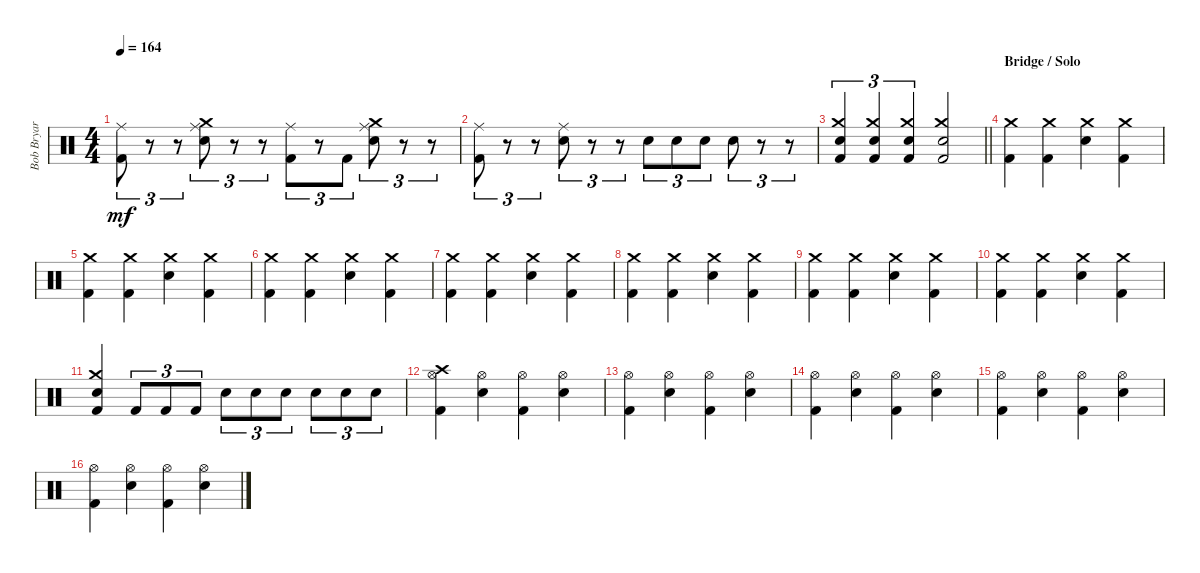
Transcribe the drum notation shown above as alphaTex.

\track ("Bob Bryar" "Bob Bryar") {instrument percussion}
\staff {score}
\articulation defaults
\ts (4 4)
\tempo 164
\clef neutral
\ks c
("Ride (middle)" "Kick (hit) 2").8{tu (3 2) dy mf} r.8{tu (3 2)} r.8{tu (3 2)} ("Crash medium (hit)" "Ride (middle)" "Electric Snare (hit)").8{tu (3 2)} r.8{tu (3 2)} r.8{tu (3 2)} ("Ride (middle)" "Kick (hit) 2").8{tu (3 2)} r.8{tu (3 2)} "Kick (hit) 2".8{tu (3 2)} ("Crash medium (hit)" "Ride (middle)" "Electric Snare (hit)").8{tu (3 2)} r.8{tu (3 2)} r.8{tu (3 2)} |
("Ride (middle)" "Kick (hit) 2").8{tu (3 2)} r.8{tu (3 2)} r.8{tu (3 2)} ("Ride (middle)" "Electric Snare (hit)").8{tu (3 2)} r.8{tu (3 2)} r.8{tu (3 2)} "Electric Snare (hit)".8{tu (3 2)} "Electric Snare (hit)".8{tu (3 2)} "Electric Snare (hit)".8{tu (3 2)} "Electric Snare (hit)".8{tu (3 2)} r.8{tu (3 2)} r.8{tu (3 2)} |
\barLineRight lightlight
("Crash medium (hit)" "Electric Snare (hit)" "Kick (hit) 2").4{tu (3 2)} ("Crash medium (hit)" "Electric Snare (hit)" "Kick (hit) 2").4{tu (3 2)} ("Crash medium (hit)" "Electric Snare (hit)" "Kick (hit) 2").4{tu (3 2)} ("Crash medium (hit)" "Electric Snare (hit)" "Kick (hit) 2").2 |
\section ("" "Bridge / Solo")
("Crash medium (hit)" "Kick (hit) 2").4 ("Crash medium (hit)" "Kick (hit) 2").4 ("Crash medium (hit)" "Electric Snare (hit)").4 ("Crash medium (hit)" "Kick (hit) 2").4 |
("Crash medium (hit)" "Kick (hit) 2").4 ("Crash medium (hit)" "Kick (hit) 2").4 ("Crash medium (hit)" "Electric Snare (hit)").4 ("Crash medium (hit)" "Kick (hit) 2").4 |
("Crash medium (hit)" "Kick (hit) 2").4 ("Crash medium (hit)" "Kick (hit) 2").4 ("Crash medium (hit)" "Electric Snare (hit)").4 ("Crash medium (hit)" "Kick (hit) 2").4 |
("Crash medium (hit)" "Kick (hit) 2").4 ("Crash medium (hit)" "Kick (hit) 2").4 ("Crash medium (hit)" "Electric Snare (hit)").4 ("Crash medium (hit)" "Kick (hit) 2").4 |
("Crash medium (hit)" "Kick (hit) 2").4 ("Crash medium (hit)" "Kick (hit) 2").4 ("Crash medium (hit)" "Electric Snare (hit)").4 ("Crash medium (hit)" "Kick (hit) 2").4 |
("Crash medium (hit)" "Kick (hit) 2").4 ("Crash medium (hit)" "Kick (hit) 2").4 ("Crash medium (hit)" "Electric Snare (hit)").4 ("Crash medium (hit)" "Kick (hit) 2").4 |
("Crash medium (hit)" "Kick (hit) 2").4 ("Crash medium (hit)" "Kick (hit) 2").4 ("Crash medium (hit)" "Electric Snare (hit)").4 ("Crash medium (hit)" "Kick (hit) 2").4 |
("Crash medium (hit)" "Electric Snare (hit)" "Kick (hit) 2").4 "Kick (hit) 2".8{tu (3 2)} "Kick (hit) 2".8{tu (3 2)} "Kick (hit) 2".8{tu (3 2)} "Electric Snare (hit)".8{tu (3 2)} "Electric Snare (hit)".8{tu (3 2)} "Electric Snare (hit)".8{tu (3 2)} "Electric Snare (hit)".8{tu (3 2)} "Electric Snare (hit)".8{tu (3 2)} "Electric Snare (hit)".8{tu (3 2)} |
("Crash high (hit)" "Hi-Hat (open)" "Kick (hit) 2").4 ("Hi-Hat (open)" "Electric Snare (hit)").4 ("Hi-Hat (open)" "Kick (hit) 2").4 ("Hi-Hat (open)" "Electric Snare (hit)").4 |
("Hi-Hat (open)" "Kick (hit) 2").4 ("Hi-Hat (open)" "Electric Snare (hit)").4 ("Hi-Hat (open)" "Kick (hit) 2").4 ("Hi-Hat (open)" "Electric Snare (hit)").4 |
("Hi-Hat (open)" "Kick (hit) 2").4 ("Hi-Hat (open)" "Electric Snare (hit)").4 ("Hi-Hat (open)" "Kick (hit) 2").4 ("Hi-Hat (open)" "Electric Snare (hit)").4 |
("Hi-Hat (open)" "Kick (hit) 2").4 ("Hi-Hat (open)" "Electric Snare (hit)").4 ("Hi-Hat (open)" "Kick (hit) 2").4 ("Hi-Hat (open)" "Electric Snare (hit)").4 |
("Hi-Hat (open)" "Kick (hit) 2").4 ("Hi-Hat (open)" "Electric Snare (hit)").4 ("Hi-Hat (open)" "Kick (hit) 2").4 ("Hi-Hat (open)" "Electric Snare (hit)").4
